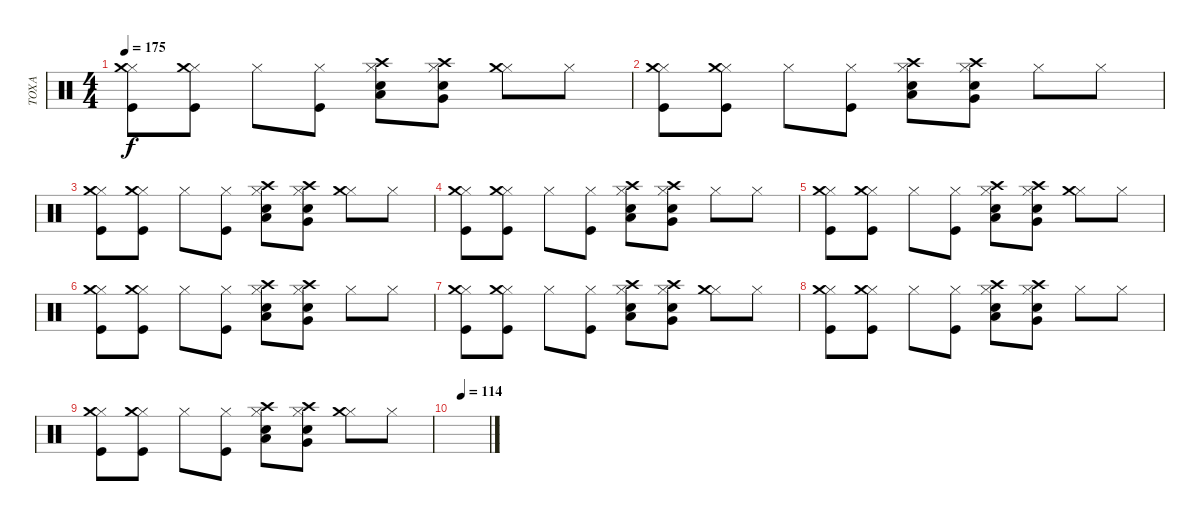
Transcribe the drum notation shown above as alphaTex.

\track ("TOXA" "TOXA") {instrument percussion}
\staff {score}
\articulation defaults
\ts (4 4)
\tempo 175
\clef neutral
\ks c
("Hi-Hat (closed)" "Crash medium (hit)" "Kick (hit)").8{dy f} ("Hi-Hat (closed)" "Crash medium (hit)" "Kick (hit)").8 "Hi-Hat (closed)".8 ("Hi-Hat (closed)" "Kick (hit)").8 ("Hi-Hat (closed)" "Crash high (hit)" "Snare (hit) 2" "Low Floor Tom (hit)").8 ("Hi-Hat (closed)" "Crash high (hit)" "Electric Snare (hit)" "Very Low Tom (hit)").8 ("Hi-Hat (closed)" "Crash medium (hit)").8 "Hi-Hat (closed)".8 |
("Hi-Hat (closed)" "Crash medium (hit)" "Kick (hit)").8 ("Hi-Hat (closed)" "Crash medium (hit)" "Kick (hit)").8 "Hi-Hat (closed)".8 ("Hi-Hat (closed)" "Kick (hit)").8 ("Hi-Hat (closed)" "Crash high (hit)" "Snare (hit) 2" "Low Floor Tom (hit)").8 ("Hi-Hat (closed)" "Crash high (hit)" "Electric Snare (hit)" "Very Low Tom (hit)").8 "Hi-Hat (closed)".8 "Hi-Hat (closed)".8 |
("Hi-Hat (closed)" "Crash medium (hit)" "Kick (hit)").8 ("Hi-Hat (closed)" "Crash medium (hit)" "Kick (hit)").8 "Hi-Hat (closed)".8 ("Hi-Hat (closed)" "Kick (hit)").8 ("Hi-Hat (closed)" "Crash high (hit)" "Snare (hit) 2" "Low Floor Tom (hit)").8 ("Hi-Hat (closed)" "Crash high (hit)" "Electric Snare (hit)" "Very Low Tom (hit)").8 ("Hi-Hat (closed)" "Crash medium (hit)").8 "Hi-Hat (closed)".8 |
("Hi-Hat (closed)" "Crash medium (hit)" "Kick (hit)").8 ("Hi-Hat (closed)" "Crash medium (hit)" "Kick (hit)").8 "Hi-Hat (closed)".8 ("Hi-Hat (closed)" "Kick (hit)").8 ("Hi-Hat (closed)" "Crash high (hit)" "Snare (hit) 2" "Low Floor Tom (hit)").8 ("Hi-Hat (closed)" "Crash high (hit)" "Electric Snare (hit)" "Very Low Tom (hit)").8 "Hi-Hat (closed)".8 "Hi-Hat (closed)".8 |
("Hi-Hat (closed)" "Crash medium (hit)" "Kick (hit)").8 ("Hi-Hat (closed)" "Crash medium (hit)" "Kick (hit)").8 "Hi-Hat (closed)".8 ("Hi-Hat (closed)" "Kick (hit)").8 ("Hi-Hat (closed)" "Crash high (hit)" "Snare (hit) 2" "Low Floor Tom (hit)").8 ("Hi-Hat (closed)" "Crash high (hit)" "Electric Snare (hit)" "Very Low Tom (hit)").8 ("Hi-Hat (closed)" "Crash medium (hit)").8 "Hi-Hat (closed)".8 |
("Hi-Hat (closed)" "Crash medium (hit)" "Kick (hit)").8 ("Hi-Hat (closed)" "Crash medium (hit)" "Kick (hit)").8 "Hi-Hat (closed)".8 ("Hi-Hat (closed)" "Kick (hit)").8 ("Hi-Hat (closed)" "Crash high (hit)" "Snare (hit) 2" "Low Floor Tom (hit)").8 ("Hi-Hat (closed)" "Crash high (hit)" "Electric Snare (hit)" "Very Low Tom (hit)").8 "Hi-Hat (closed)".8 "Hi-Hat (closed)".8 |
("Hi-Hat (closed)" "Crash medium (hit)" "Kick (hit)").8 ("Hi-Hat (closed)" "Crash medium (hit)" "Kick (hit)").8 "Hi-Hat (closed)".8 ("Hi-Hat (closed)" "Kick (hit)").8 ("Hi-Hat (closed)" "Crash high (hit)" "Snare (hit) 2" "Low Floor Tom (hit)").8 ("Hi-Hat (closed)" "Crash high (hit)" "Electric Snare (hit)" "Very Low Tom (hit)").8 ("Hi-Hat (closed)" "Crash medium (hit)").8 "Hi-Hat (closed)".8 |
("Hi-Hat (closed)" "Crash medium (hit)" "Kick (hit)").8 ("Hi-Hat (closed)" "Crash medium (hit)" "Kick (hit)").8 "Hi-Hat (closed)".8 ("Hi-Hat (closed)" "Kick (hit)").8 ("Hi-Hat (closed)" "Crash high (hit)" "Snare (hit) 2" "Low Floor Tom (hit)").8 ("Hi-Hat (closed)" "Crash high (hit)" "Electric Snare (hit)" "Very Low Tom (hit)").8 "Hi-Hat (closed)".8 "Hi-Hat (closed)".8 |
("Hi-Hat (closed)" "Crash medium (hit)" "Kick (hit)").8 ("Hi-Hat (closed)" "Crash medium (hit)" "Kick (hit)").8 "Hi-Hat (closed)".8 ("Hi-Hat (closed)" "Kick (hit)").8 ("Hi-Hat (closed)" "Crash high (hit)" "Snare (hit) 2" "Low Floor Tom (hit)").8 ("Hi-Hat (closed)" "Crash high (hit)" "Electric Snare (hit)" "Very Low Tom (hit)").8 ("Hi-Hat (closed)" "Crash medium (hit)").8 "Hi-Hat (closed)".8 |
\tempo (114 0.25)
